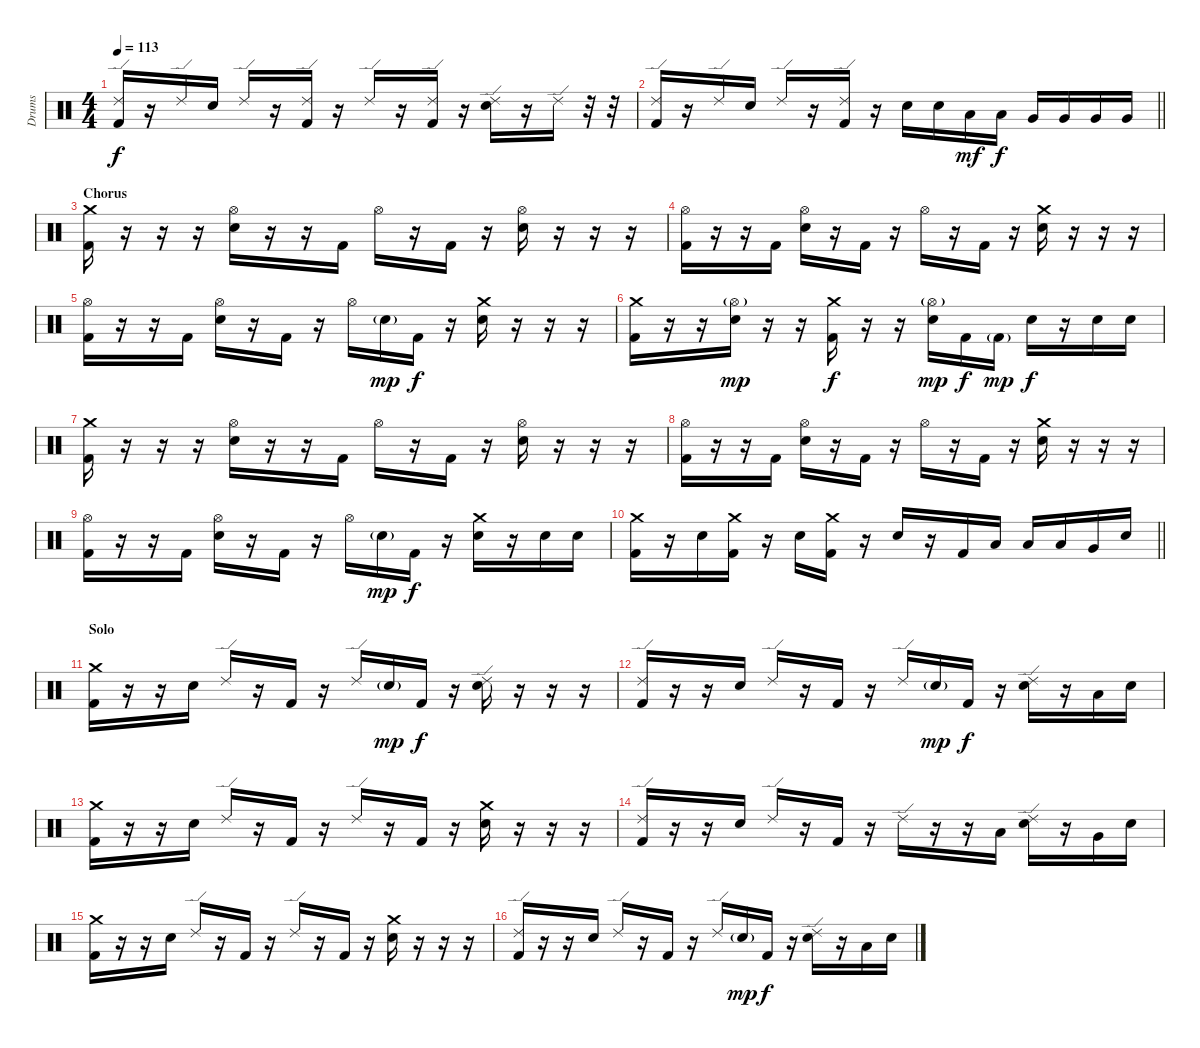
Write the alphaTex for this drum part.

\track ("Drums" "Drums") {instrument percussion}
\staff {score}
\articulation defaults
\ts (4 4)
\tempo 113
\clef neutral
\ks c
("Ride (edge) 2" "Kick (hit) 2").16{dy f} r.16 "Ride (edge) 2".16 "Electric Snare (hit)".16 "Ride (edge) 2".16 r.16 ("Ride (edge) 2" "Kick (hit) 2").16 r.16 "Ride (edge) 2".16 r.16 ("Ride (edge) 2" "Kick (hit) 2").16 r.16 ("Ride (edge) 2" "Electric Snare (hit)").16 r.16 "Ride (edge) 2".16 r.32 r.32 |
\barLineRight lightlight
("Ride (edge) 2" "Kick (hit) 2").16 r.16 "Ride (edge) 2".16 "Electric Snare (hit)".16 "Ride (edge) 2".16 r.16 ("Ride (edge) 2" "Kick (hit) 2").16 r.16 "Electric Snare (hit)".16 "Electric Snare (hit)".16 "Low Tom (hit)".16{dy mf} "Low Tom (hit)".16{dy f} "Very Low Tom (hit)".16 "Very Low Tom (hit)".16 "Very Low Tom (hit)".16 "Very Low Tom (hit)".16 |
\section ("" "Chorus")
("Crash medium (hit)" "Kick (hit) 2").16 r.16 r.16 r.16 ("Hi-Hat (open)" "Electric Snare (hit)").16 r.16 r.16 "Kick (hit) 2".16 "Hi-Hat (open)".16 r.16 "Kick (hit) 2".16 r.16 ("Hi-Hat (open)" "Electric Snare (hit)").16 r.16 r.16 r.16 |
("Hi-Hat (open)" "Kick (hit) 2").16 r.16 r.16 "Kick (hit) 2".16 ("Hi-Hat (open)" "Electric Snare (hit)").16 r.16 "Kick (hit) 2".16 r.16 "Hi-Hat (open)".16 r.16 "Kick (hit) 2".16 r.16 ("Crash medium (hit)" "Electric Snare (hit)").16 r.16 r.16 r.16 |
("Hi-Hat (open)" "Kick (hit) 2").16 r.16 r.16 "Kick (hit) 2".16 ("Hi-Hat (open)" "Electric Snare (hit)").16 r.16 "Kick (hit) 2".16 r.16 "Hi-Hat (open)".16 "Electric Snare (hit)"{g}.16{dy mp} "Kick (hit) 2".16{dy f} r.16 ("Crash medium (hit)" "Electric Snare (hit)").16 r.16 r.16 r.16 |
("Crash medium (hit)" "Kick (hit) 2").16 r.16 r.16 ("Hi-Hat (open)"{g} "Electric Snare (hit)").16{dy mp} r.16 r.16 ("Crash medium (hit)" "Kick (hit) 2").16{dy f} r.16 r.16 ("Hi-Hat (open)"{g} "Electric Snare (hit)").16{dy mp} "Kick (hit) 2".16{dy f} "Kick (hit) 2"{g}.16{dy mp} "Electric Snare (hit)".16{dy f} r.16 "Electric Snare (hit)".16 "Electric Snare (hit)".16 |
("Crash medium (hit)" "Kick (hit) 2").16 r.16 r.16 r.16 ("Hi-Hat (open)" "Electric Snare (hit)").16 r.16 r.16 "Kick (hit) 2".16 "Hi-Hat (open)".16 r.16 "Kick (hit) 2".16 r.16 ("Hi-Hat (open)" "Electric Snare (hit)").16 r.16 r.16 r.16 |
("Hi-Hat (open)" "Kick (hit) 2").16 r.16 r.16 "Kick (hit) 2".16 ("Hi-Hat (open)" "Electric Snare (hit)").16 r.16 "Kick (hit) 2".16 r.16 "Hi-Hat (open)".16 r.16 "Kick (hit) 2".16 r.16 ("Crash medium (hit)" "Electric Snare (hit)").16 r.16 r.16 r.16 |
("Hi-Hat (open)" "Kick (hit) 2").16 r.16 r.16 "Kick (hit) 2".16 ("Hi-Hat (open)" "Electric Snare (hit)").16 r.16 "Kick (hit) 2".16 r.16 "Hi-Hat (open)".16 "Electric Snare (hit)"{g}.16{dy mp} "Kick (hit) 2".16{dy f} r.16 ("Crash medium (hit)" "Electric Snare (hit)").16 r.16 "Electric Snare (hit)".16 "Electric Snare (hit)".16 |
\barLineRight lightlight
("Crash medium (hit)" "Kick (hit) 2").16 r.16 "Electric Snare (hit)".16 ("Crash medium (hit)" "Kick (hit) 2").16 r.16 "Electric Snare (hit)".16 ("Crash medium (hit)" "Kick (hit) 2").16 r.16 "Electric Snare (hit)".16 r.16 "Kick (hit) 2".16 "Low Tom (hit)".16 "Low Tom (hit)".16 "Low Tom (hit)".16 "Very Low Tom (hit)".16 "Electric Snare (hit)".16 |
\section ("" "Solo")
("Crash medium (hit)" "Kick (hit) 2").16 r.16 r.16 "Electric Snare (hit)".16 "Ride (edge) 2".16 r.16 "Kick (hit) 2".16 r.16 "Ride (edge) 2".16 "Electric Snare (hit)"{g}.16{dy mp} "Kick (hit) 2".16{dy f} r.16 ("Ride (edge) 2" "Electric Snare (hit)").16 r.16 r.16 r.16 |
("Ride (edge) 2" "Kick (hit) 2").16 r.16 r.16 "Electric Snare (hit)".16 "Ride (edge) 2".16 r.16 "Kick (hit) 2".16 r.16 "Ride (edge) 2".16 "Electric Snare (hit)"{g}.16{dy mp} "Kick (hit) 2".16{dy f} r.16 ("Ride (edge) 2" "Electric Snare (hit)").16 r.16 "Low Tom (hit)".16 "Electric Snare (hit)".16 |
("Crash medium (hit)" "Kick (hit) 2").16 r.16 r.16 "Electric Snare (hit)".16 "Ride (edge) 2".16 r.16 "Kick (hit) 2".16 r.16 "Ride (edge) 2".16 r.16 "Kick (hit) 2".16 r.16 ("Crash medium (hit)" "Electric Snare (hit)").16 r.16 r.16 r.16 |
("Ride (edge) 2" "Kick (hit) 2").16 r.16 r.16 "Electric Snare (hit)".16 "Ride (edge) 2".16 r.16 "Kick (hit) 2".16 r.16 "Ride (edge) 2".16 r.16 r.16 "Low Tom (hit)".16 ("Ride (edge) 2" "Electric Snare (hit)").16 r.16 "Very Low Tom (hit)".16 "Electric Snare (hit)".16 |
("Crash medium (hit)" "Kick (hit) 2").16 r.16 r.16 "Electric Snare (hit)".16 "Ride (edge) 2".16 r.16 "Kick (hit) 2".16 r.16 "Ride (edge) 2".16 r.16 "Kick (hit) 2".16 r.16 ("Crash medium (hit)" "Electric Snare (hit)").16 r.16 r.16 r.16 |
("Ride (edge) 2" "Kick (hit) 2").16 r.16 r.16 "Electric Snare (hit)".16 "Ride (edge) 2".16 r.16 "Kick (hit) 2".16 r.16 "Ride (edge) 2".16 "Electric Snare (hit)"{g}.16{dy mp} "Kick (hit) 2".16{dy f} r.16 ("Ride (edge) 2" "Electric Snare (hit)").16 r.16 "Low Tom (hit)".16 "Electric Snare (hit)".16
